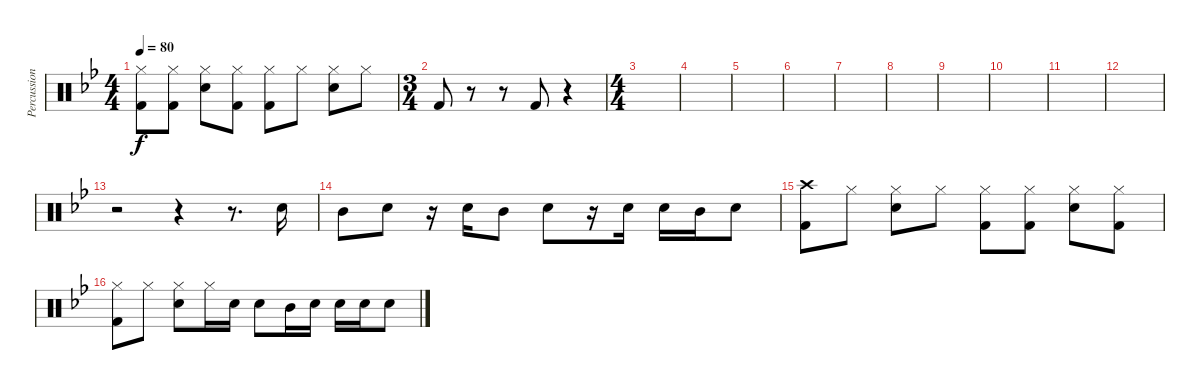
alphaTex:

\track ("Percussion" "Percussion") {instrument percussion}
\staff {score}
\articulation defaults
\ts (4 4)
\tempo 80
\clef neutral
\ks bb
("Hi-Hat (closed)" "Kick (hit) 2").8{dy f} ("Hi-Hat (closed)" "Kick (hit) 2").8 ("Hi-Hat (closed)" "Snare (hit) 2").8 ("Hi-Hat (closed)" "Kick (hit) 2").8 ("Hi-Hat (closed)" "Kick (hit) 2").8 "Hi-Hat (closed)".8 ("Hi-Hat (closed)" "Snare (hit) 2").8 "Hi-Hat (closed)".8 |
\ts (3 4)
"Kick (hit) 2".8 r.8 r.8 "Kick (hit) 2".8 r.4 |
\ts (4 4)
|
|
|
|
|
|
|
|
|
|
r.2 r.4 r.8{d} "Snare (hit) 2".16 |
"Mid Tom (hit)".8 "Snare (hit) 2".8 r.16 "Snare (hit) 2".16 "Mid Tom (hit)".8 "Snare (hit) 2".8 r.16 "Snare (hit) 2".16 "Snare (hit) 2".16 "Mid Tom (hit)".16 "Snare (hit) 2".8 |
("Crash high (hit)" "Kick (hit) 2").8 "Hi-Hat (closed)".8 ("Hi-Hat (closed)" "Snare (hit) 2").8 "Hi-Hat (closed)".8 ("Hi-Hat (closed)" "Kick (hit) 2").8 ("Hi-Hat (closed)" "Kick (hit) 2").8 ("Hi-Hat (closed)" "Snare (hit) 2").8 ("Hi-Hat (closed)" "Kick (hit) 2").8 |
("Hi-Hat (closed)" "Kick (hit) 2").8 "Hi-Hat (closed)".8 ("Hi-Hat (closed)" "Snare (hit) 2").8 "Hi-Hat (closed)".16 "Snare (hit) 2".16 "Snare (hit) 2".8 "Mid Tom (hit)".16 "Snare (hit) 2".16 "Snare (hit) 2".16 "Snare (hit) 2".16 "Snare (hit) 2".8
